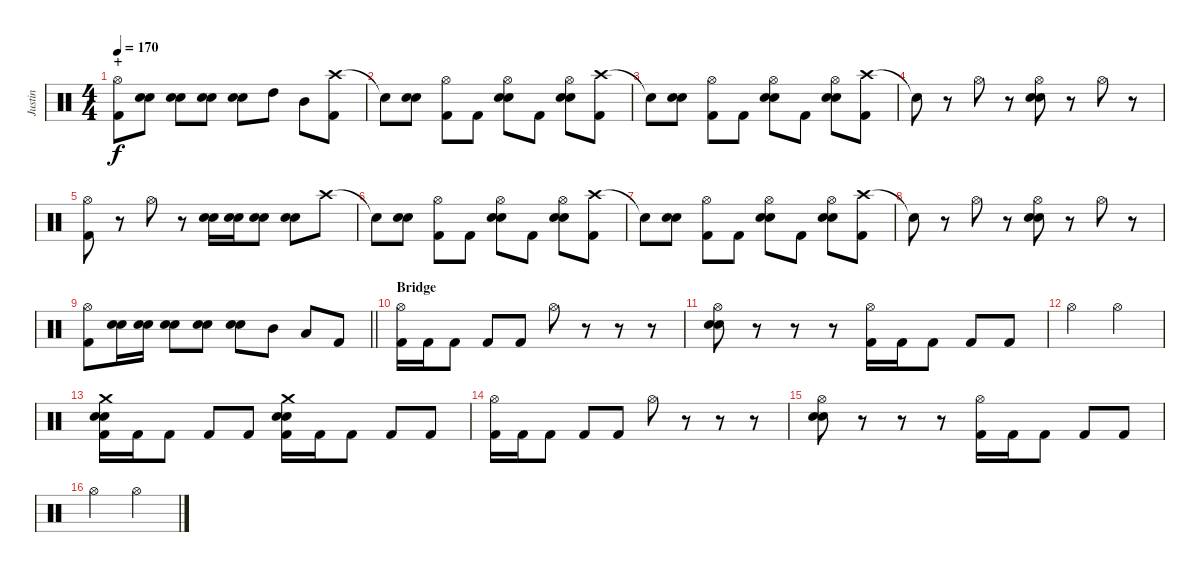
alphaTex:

\track ("Justin" "Justin") {instrument percussion}
\staff {score}
\articulation defaults
\ts (4 4)
\section ("" "+")
\tempo 170
\clef neutral
\ks c
("Hi-Hat (open)" "Kick (hit) 2").8{dy f} ("Electric Snare (hit)" "Snare (hit) 2").8 ("Electric Snare (hit)" "Snare (hit) 2").8 ("Electric Snare (hit)" "Snare (hit) 2").8 ("Electric Snare (hit)" "Snare (hit) 2").8 "High Tom (hit)".8 "Mid Tom (hit)".8 ("Crash high (hit)" "Kick (hit) 2").8 |
"Snare (hit)"{t}.8 ("Electric Snare (hit)" "Snare (hit) 2").8 ("Hi-Hat (open)" "Kick (hit) 2").8 "Kick (hit) 2".8 ("Hi-Hat (open)" "Electric Snare (hit)" "Snare (hit) 2").8 "Kick (hit) 2".8 ("Hi-Hat (open)" "Electric Snare (hit)" "Snare (hit) 2").8 ("Crash high (hit)" "Kick (hit) 2").8 |
"Snare (hit)"{t}.8 ("Electric Snare (hit)" "Snare (hit) 2").8 ("Hi-Hat (open)" "Kick (hit) 2").8 "Kick (hit) 2".8 ("Hi-Hat (open)" "Electric Snare (hit)" "Snare (hit) 2").8 "Kick (hit) 2".8 ("Hi-Hat (open)" "Electric Snare (hit)" "Snare (hit) 2").8 ("Crash high (hit)" "Kick (hit) 2").8 |
"Snare (hit)"{t}.8 r.8 "Hi-Hat (open)".8 r.8 ("Hi-Hat (open)" "Electric Snare (hit)" "Snare (hit) 2").8 r.8 "Hi-Hat (open)".8 r.8 |
("Hi-Hat (open)" "Kick (hit) 2").8 r.8 "Hi-Hat (open)".8 r.8 ("Electric Snare (hit)" "Snare (hit) 2").16 ("Electric Snare (hit)" "Snare (hit) 2").16 ("Electric Snare (hit)" "Snare (hit) 2").8 ("Electric Snare (hit)" "Snare (hit) 2").8 "Crash high (hit)".8 |
"Snare (hit)"{t}.8 ("Electric Snare (hit)" "Snare (hit) 2").8 ("Hi-Hat (open)" "Kick (hit) 2").8 "Kick (hit) 2".8 ("Hi-Hat (open)" "Electric Snare (hit)" "Snare (hit) 2").8 "Kick (hit) 2".8 ("Hi-Hat (open)" "Electric Snare (hit)" "Snare (hit) 2").8 ("Crash high (hit)" "Kick (hit) 2").8 |
"Snare (hit)"{t}.8 ("Electric Snare (hit)" "Snare (hit) 2").8 ("Hi-Hat (open)" "Kick (hit) 2").8 "Kick (hit) 2".8 ("Hi-Hat (open)" "Electric Snare (hit)" "Snare (hit) 2").8 "Kick (hit) 2".8 ("Hi-Hat (open)" "Electric Snare (hit)" "Snare (hit) 2").8 ("Crash high (hit)" "Kick (hit) 2").8 |
"Snare (hit)"{t}.8 r.8 "Hi-Hat (open)".8 r.8 ("Hi-Hat (open)" "Electric Snare (hit)" "Snare (hit) 2").8 r.8 "Hi-Hat (open)".8 r.8 |
\barLineRight lightlight
("Hi-Hat (open)" "Kick (hit) 2").8 ("Electric Snare (hit)" "Snare (hit) 2").16 ("Electric Snare (hit)" "Snare (hit) 2").16 ("Electric Snare (hit)" "Snare (hit) 2").8 ("Electric Snare (hit)" "Snare (hit) 2").8 ("Electric Snare (hit)" "Snare (hit) 2").8 "Mid Tom (hit)".8 "Low Tom (hit)".8 "Kick (hit) 2".8 |
\section ("" "Bridge")
("Hi-Hat (open)" "Kick (hit) 2").16 "Kick (hit) 2".16 "Kick (hit) 2".8 "Kick (hit) 2".8 "Kick (hit) 2".8 "Hi-Hat (open)".8 r.8 r.8 r.8 |
("Hi-Hat (open)" "Electric Snare (hit)" "Snare (hit) 2").8 r.8 r.8 r.8 ("Hi-Hat (open)" "Kick (hit) 2").16 "Kick (hit) 2".16 "Kick (hit) 2".8 "Kick (hit) 2".8 "Kick (hit) 2".8 |
"Hi-Hat (open)".2 "Hi-Hat (open)".2 |
("Crash medium (hit)" "Electric Snare (hit)" "Snare (hit) 2" "Kick (hit) 2").16 "Kick (hit) 2".16 "Kick (hit) 2".8 "Kick (hit) 2".8 "Kick (hit) 2".8 ("Crash medium (hit)" "Electric Snare (hit)" "Snare (hit) 2" "Kick (hit) 2").16 "Kick (hit) 2".16 "Kick (hit) 2".8 "Kick (hit) 2".8 "Kick (hit) 2".8 |
("Hi-Hat (open)" "Kick (hit) 2").16 "Kick (hit) 2".16 "Kick (hit) 2".8 "Kick (hit) 2".8 "Kick (hit) 2".8 "Hi-Hat (open)".8 r.8 r.8 r.8 |
("Hi-Hat (open)" "Electric Snare (hit)" "Snare (hit) 2").8 r.8 r.8 r.8 ("Hi-Hat (open)" "Kick (hit) 2").16 "Kick (hit) 2".16 "Kick (hit) 2".8 "Kick (hit) 2".8 "Kick (hit) 2".8 |
"Hi-Hat (open)".2 "Hi-Hat (open)".2
